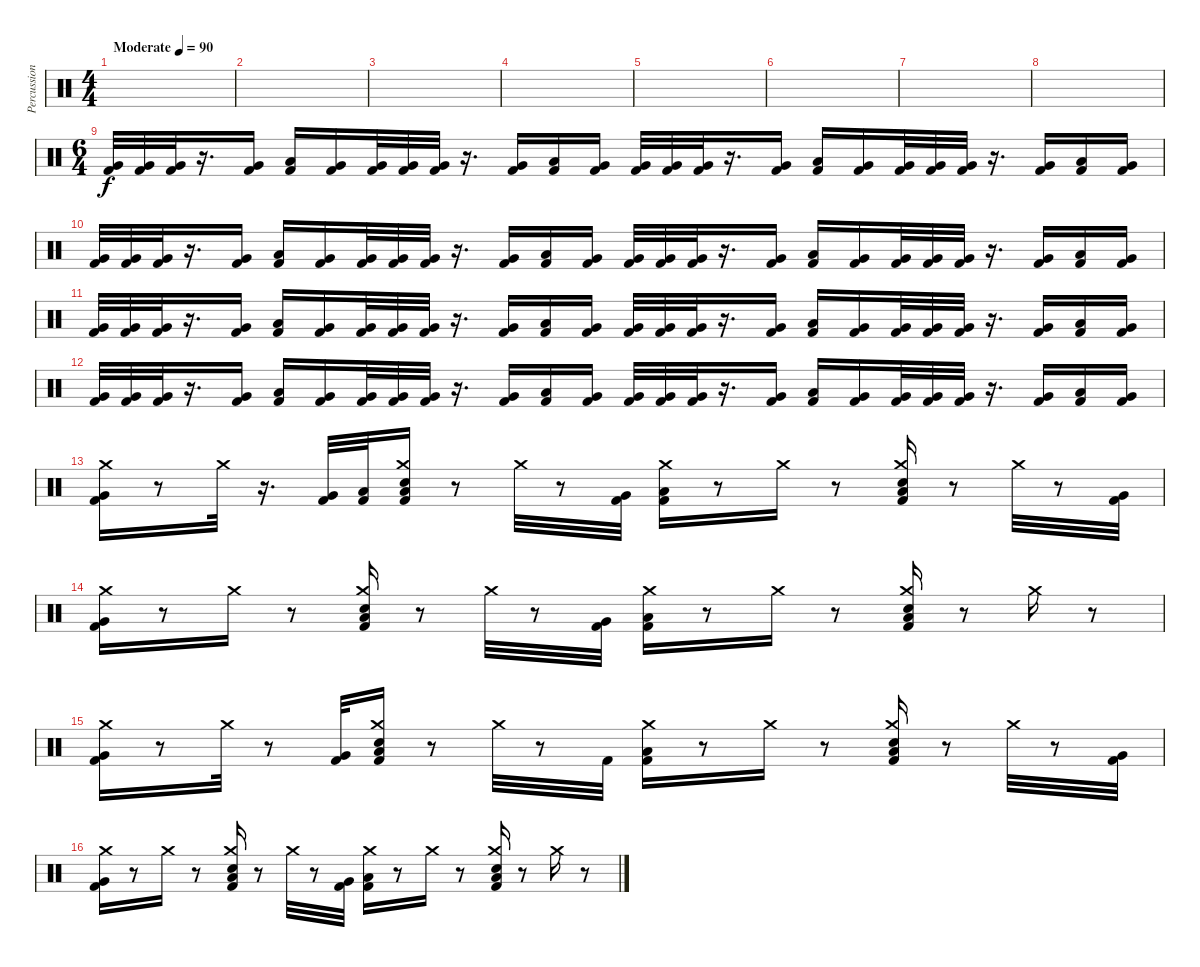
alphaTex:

\track ("Percussion" "Percussion") {instrument percussion}
\staff {score}
\articulation defaults
\ts (4 4)
\tempo (90 "Moderate")
\clef neutral
\ks c
|
|
|
|
|
|
|
|
\ts (6 4)
("Very Low Tom (hit)" "Kick (hit) 2").32 ("Very Low Tom (hit)" "Kick (hit) 2").32 ("Very Low Tom (hit)" "Kick (hit) 2").32 r.16{d} ("Very Low Tom (hit)" "Kick (hit) 2").16 ("Low Tom (hit)" "Kick (hit) 2").16 ("Very Low Tom (hit)" "Kick (hit) 2").16 ("Very Low Tom (hit)" "Kick (hit) 2").32 ("Very Low Tom (hit)" "Kick (hit) 2").32 ("Very Low Tom (hit)" "Kick (hit) 2").32 r.16{d} ("Very Low Tom (hit)" "Kick (hit) 2").16 ("Low Tom (hit)" "Kick (hit) 2").16 ("Very Low Tom (hit)" "Kick (hit) 2").16 ("Very Low Tom (hit)" "Kick (hit) 2").32 ("Very Low Tom (hit)" "Kick (hit) 2").32 ("Very Low Tom (hit)" "Kick (hit) 2").32 r.16{d} ("Very Low Tom (hit)" "Kick (hit) 2").16 ("Low Tom (hit)" "Kick (hit) 2").16 ("Very Low Tom (hit)" "Kick (hit) 2").16 ("Very Low Tom (hit)" "Kick (hit) 2").32 ("Very Low Tom (hit)" "Kick (hit) 2").32 ("Very Low Tom (hit)" "Kick (hit) 2").32 r.16{d} ("Very Low Tom (hit)" "Kick (hit) 2").16 ("Low Tom (hit)" "Kick (hit) 2").16 ("Very Low Tom (hit)" "Kick (hit) 2").16 |
("Very Low Tom (hit)" "Kick (hit) 2").32 ("Very Low Tom (hit)" "Kick (hit) 2").32 ("Very Low Tom (hit)" "Kick (hit) 2").32 r.16{d} ("Very Low Tom (hit)" "Kick (hit) 2").16 ("Low Tom (hit)" "Kick (hit) 2").16 ("Very Low Tom (hit)" "Kick (hit) 2").16 ("Very Low Tom (hit)" "Kick (hit) 2").32 ("Very Low Tom (hit)" "Kick (hit) 2").32 ("Very Low Tom (hit)" "Kick (hit) 2").32 r.16{d} ("Very Low Tom (hit)" "Kick (hit) 2").16 ("Low Tom (hit)" "Kick (hit) 2").16 ("Very Low Tom (hit)" "Kick (hit) 2").16 ("Very Low Tom (hit)" "Kick (hit) 2").32 ("Very Low Tom (hit)" "Kick (hit) 2").32 ("Very Low Tom (hit)" "Kick (hit) 2").32 r.16{d} ("Very Low Tom (hit)" "Kick (hit) 2").16 ("Low Tom (hit)" "Kick (hit) 2").16 ("Very Low Tom (hit)" "Kick (hit) 2").16 ("Very Low Tom (hit)" "Kick (hit) 2").32 ("Very Low Tom (hit)" "Kick (hit) 2").32 ("Very Low Tom (hit)" "Kick (hit) 2").32 r.16{d} ("Very Low Tom (hit)" "Kick (hit) 2").16 ("Low Tom (hit)" "Kick (hit) 2").16 ("Very Low Tom (hit)" "Kick (hit) 2").16 |
("Very Low Tom (hit)" "Kick (hit) 2").32 ("Very Low Tom (hit)" "Kick (hit) 2").32 ("Very Low Tom (hit)" "Kick (hit) 2").32 r.16{d} ("Very Low Tom (hit)" "Kick (hit) 2").16 ("Low Tom (hit)" "Kick (hit) 2").16 ("Very Low Tom (hit)" "Kick (hit) 2").16 ("Very Low Tom (hit)" "Kick (hit) 2").32 ("Very Low Tom (hit)" "Kick (hit) 2").32 ("Very Low Tom (hit)" "Kick (hit) 2").32 r.16{d} ("Very Low Tom (hit)" "Kick (hit) 2").16 ("Low Tom (hit)" "Kick (hit) 2").16 ("Very Low Tom (hit)" "Kick (hit) 2").16 ("Very Low Tom (hit)" "Kick (hit) 2").32 ("Very Low Tom (hit)" "Kick (hit) 2").32 ("Very Low Tom (hit)" "Kick (hit) 2").32 r.16{d} ("Very Low Tom (hit)" "Kick (hit) 2").16 ("Low Tom (hit)" "Kick (hit) 2").16 ("Very Low Tom (hit)" "Kick (hit) 2").16 ("Very Low Tom (hit)" "Kick (hit) 2").32 ("Very Low Tom (hit)" "Kick (hit) 2").32 ("Very Low Tom (hit)" "Kick (hit) 2").32 r.16{d} ("Very Low Tom (hit)" "Kick (hit) 2").16 ("Low Tom (hit)" "Kick (hit) 2").16 ("Very Low Tom (hit)" "Kick (hit) 2").16 |
("Very Low Tom (hit)" "Kick (hit) 2").32 ("Very Low Tom (hit)" "Kick (hit) 2").32 ("Very Low Tom (hit)" "Kick (hit) 2").32 r.16{d} ("Very Low Tom (hit)" "Kick (hit) 2").16 ("Low Tom (hit)" "Kick (hit) 2").16 ("Very Low Tom (hit)" "Kick (hit) 2").16 ("Very Low Tom (hit)" "Kick (hit) 2").32 ("Very Low Tom (hit)" "Kick (hit) 2").32 ("Very Low Tom (hit)" "Kick (hit) 2").32 r.16{d} ("Very Low Tom (hit)" "Kick (hit) 2").16 ("Low Tom (hit)" "Kick (hit) 2").16 ("Very Low Tom (hit)" "Kick (hit) 2").16 ("Very Low Tom (hit)" "Kick (hit) 2").32 ("Very Low Tom (hit)" "Kick (hit) 2").32 ("Very Low Tom (hit)" "Kick (hit) 2").32 r.16{d} ("Very Low Tom (hit)" "Kick (hit) 2").16 ("Low Tom (hit)" "Kick (hit) 2").16 ("Very Low Tom (hit)" "Kick (hit) 2").16 ("Very Low Tom (hit)" "Kick (hit) 2").32 ("Very Low Tom (hit)" "Kick (hit) 2").32 ("Very Low Tom (hit)" "Kick (hit) 2").32 r.16{d} ("Very Low Tom (hit)" "Kick (hit) 2").16 ("Low Tom (hit)" "Kick (hit) 2").16 ("Very Low Tom (hit)" "Kick (hit) 2").16 |
("Crash medium (hit)" "Very Low Tom (hit)" "Kick (hit) 2").16 r.8 "Crash medium (hit)".32 r.16{d} ("Very Low Tom (hit)" "Kick (hit) 2").32 ("Low Floor Tom (hit)" "Kick (hit) 2").32 ("Crash medium (hit)" "Snare (hit) 2" "Low Tom (hit)" "Kick (hit) 2").16 r.8 "Crash medium (hit)".32 r.8 ("Very Low Tom (hit)" "Kick (hit) 2").32 ("Crash medium (hit)" "Low Tom (hit)" "Kick (hit) 2").16 r.8 "Crash medium (hit)".16 r.8 ("Crash medium (hit)" "Snare (hit) 2" "Low Tom (hit)" "Kick (hit) 2").16 r.8 "Crash medium (hit)".32 r.8 ("Very Low Tom (hit)" "Kick (hit) 2").32 |
("Crash medium (hit)" "Very Low Tom (hit)" "Kick (hit) 2").16 r.8 "Crash medium (hit)".16 r.8 ("Crash medium (hit)" "Snare (hit) 2" "Low Tom (hit)" "Kick (hit) 2").16 r.8 "Crash medium (hit)".32 r.8 ("Very Low Tom (hit)" "Kick (hit) 2").32 ("Crash medium (hit)" "Low Tom (hit)" "Kick (hit) 2").16 r.8 "Crash medium (hit)".16 r.8 ("Crash medium (hit)" "Snare (hit) 2" "Low Tom (hit)" "Kick (hit) 2").16 r.8 "Crash medium (hit)".16 r.8 |
("Crash medium (hit)" "Very Low Tom (hit)" "Kick (hit) 2").16 r.8 "Crash medium (hit)".32 r.8 ("Very Low Tom (hit)" "Kick (hit) 2").32 ("Crash medium (hit)" "Snare (hit) 2" "Low Tom (hit)" "Kick (hit) 2").16 r.8 "Crash medium (hit)".32 r.8 "Kick (hit) 2".32 ("Crash medium (hit)" "Low Tom (hit)" "Kick (hit) 2").16 r.8 "Crash medium (hit)".16 r.8 ("Crash medium (hit)" "Snare (hit) 2" "Low Tom (hit)" "Kick (hit) 2").16 r.8 "Crash medium (hit)".32 r.8 ("Very Low Tom (hit)" "Kick (hit) 2").32 |
("Crash medium (hit)" "Very Low Tom (hit)" "Kick (hit) 2").16 r.8 "Crash medium (hit)".16 r.8 ("Crash medium (hit)" "Snare (hit) 2" "Low Tom (hit)" "Kick (hit) 2").16 r.8 "Crash medium (hit)".32 r.8 ("Very Low Tom (hit)" "Kick (hit) 2").32 ("Crash medium (hit)" "Low Tom (hit)" "Kick (hit) 2").16 r.8 "Crash medium (hit)".16 r.8 ("Crash medium (hit)" "Snare (hit) 2" "Low Tom (hit)" "Kick (hit) 2").16 r.8 "Crash medium (hit)".16 r.8
